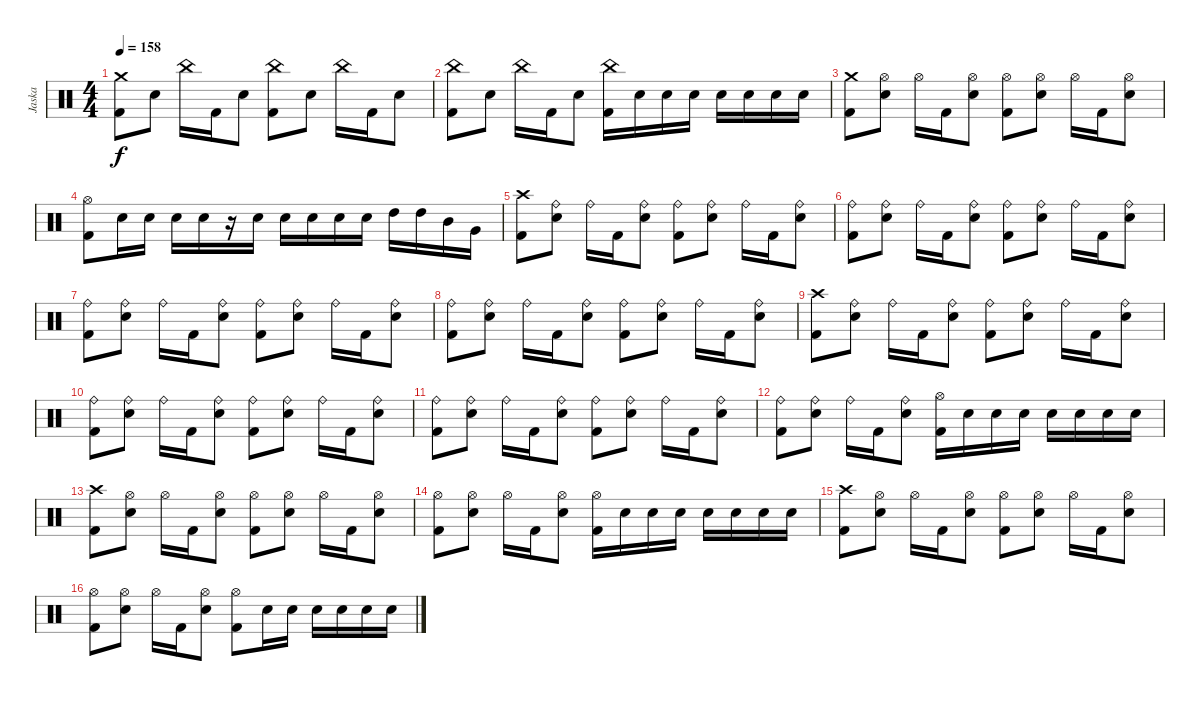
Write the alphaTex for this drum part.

\track ("Jaska" "Jaska") {instrument percussion}
\staff {score}
\articulation defaults
\ts (4 4)
\tempo 158
\clef neutral
\ks c
("Crash medium (hit)" "Kick (hit) 2").8{dy f} "Electric Snare (hit)".8 "China (hit)".16 "Kick (hit) 2".16 "Electric Snare (hit)".8 ("China (hit)" "Kick (hit) 2").8 "Electric Snare (hit)".8 "China (hit)".16 "Kick (hit) 2".16 "Electric Snare (hit)".8 |
("China (hit)" "Kick (hit) 2").8 "Electric Snare (hit)".8 "China (hit)".16 "Kick (hit) 2".16 "Electric Snare (hit)".8 ("China (hit)" "Kick (hit) 2").16 "Electric Snare (hit)".16 "Electric Snare (hit)".16 "Electric Snare (hit)".16 "Electric Snare (hit)".16 "Electric Snare (hit)".16 "Electric Snare (hit)".16 "Electric Snare (hit)".16 |
("Crash medium (hit)" "Kick (hit) 2").8 ("Hi-Hat (open)" "Electric Snare (hit)").8 "Hi-Hat (open)".16 "Kick (hit) 2".16 ("Hi-Hat (open)" "Electric Snare (hit)").8 ("Hi-Hat (open)" "Kick (hit) 2").8 ("Hi-Hat (open)" "Electric Snare (hit)").8 "Hi-Hat (open)".16 "Kick (hit) 2".16 ("Hi-Hat (open)" "Electric Snare (hit)").8 |
("Hi-Hat (open)" "Kick (hit) 2").8 "Electric Snare (hit)".16 "Electric Snare (hit)".16 "Electric Snare (hit)".16 "Electric Snare (hit)".16 r.16 "Electric Snare (hit)".16 "Electric Snare (hit)".16 "Electric Snare (hit)".16 "Electric Snare (hit)".16 "Electric Snare (hit)".16 "High Tom (hit)".16{balance 0} "High Tom (hit)".16{balance 7} "Mid Tom (hit)".16{balance 12} "Very Low Tom (hit)".16{balance 16} |
("Crash high (hit)" "Kick (hit) 2").8{balance 8} ("Ride (bell)" "Electric Snare (hit)").8 "Ride (bell)".16 "Kick (hit) 2".16 ("Ride (bell)" "Electric Snare (hit)").8 ("Ride (bell)" "Kick (hit) 2").8 ("Ride (bell)" "Electric Snare (hit)").8 "Ride (bell)".16 "Kick (hit) 2".16 ("Ride (bell)" "Electric Snare (hit)").8 |
("Ride (bell)" "Kick (hit) 2").8 ("Ride (bell)" "Electric Snare (hit)").8 "Ride (bell)".16 "Kick (hit) 2".16 ("Ride (bell)" "Electric Snare (hit)").8 ("Ride (bell)" "Kick (hit) 2").8 ("Ride (bell)" "Electric Snare (hit)").8 "Ride (bell)".16 "Kick (hit) 2".16 ("Ride (bell)" "Electric Snare (hit)").8 |
("Ride (bell)" "Kick (hit) 2").8 ("Ride (bell)" "Electric Snare (hit)").8 "Ride (bell)".16 "Kick (hit) 2".16 ("Ride (bell)" "Electric Snare (hit)").8 ("Ride (bell)" "Kick (hit) 2").8 ("Ride (bell)" "Electric Snare (hit)").8 "Ride (bell)".16 "Kick (hit) 2".16 ("Ride (bell)" "Electric Snare (hit)").8 |
("Ride (bell)" "Kick (hit) 2").8 ("Ride (bell)" "Electric Snare (hit)").8 "Ride (bell)".16 "Kick (hit) 2".16 ("Ride (bell)" "Electric Snare (hit)").8 ("Ride (bell)" "Kick (hit) 2").8 ("Ride (bell)" "Electric Snare (hit)").8 "Ride (bell)".16 "Kick (hit) 2".16 ("Ride (bell)" "Electric Snare (hit)").8 |
("Crash high (hit)" "Kick (hit) 2").8 ("Ride (bell)" "Electric Snare (hit)").8 "Ride (bell)".16 "Kick (hit) 2".16 ("Ride (bell)" "Electric Snare (hit)").8 ("Ride (bell)" "Kick (hit) 2").8 ("Ride (bell)" "Electric Snare (hit)").8 "Ride (bell)".16 "Kick (hit) 2".16 ("Ride (bell)" "Electric Snare (hit)").8 |
("Ride (bell)" "Kick (hit) 2").8 ("Ride (bell)" "Electric Snare (hit)").8 "Ride (bell)".16 "Kick (hit) 2".16 ("Ride (bell)" "Electric Snare (hit)").8 ("Ride (bell)" "Kick (hit) 2").8 ("Ride (bell)" "Electric Snare (hit)").8 "Ride (bell)".16 "Kick (hit) 2".16 ("Ride (bell)" "Electric Snare (hit)").8 |
("Ride (bell)" "Kick (hit) 2").8 ("Ride (bell)" "Electric Snare (hit)").8 "Ride (bell)".16 "Kick (hit) 2".16 ("Ride (bell)" "Electric Snare (hit)").8 ("Ride (bell)" "Kick (hit) 2").8 ("Ride (bell)" "Electric Snare (hit)").8 "Ride (bell)".16 "Kick (hit) 2".16 ("Ride (bell)" "Electric Snare (hit)").8 |
("Ride (bell)" "Kick (hit) 2").8 ("Ride (bell)" "Electric Snare (hit)").8 "Ride (bell)".16 "Kick (hit) 2".16 ("Ride (bell)" "Electric Snare (hit)").8 ("Hi-Hat (open)" "Kick (hit) 2").16 "Electric Snare (hit)".16 "Electric Snare (hit)".16 "Electric Snare (hit)".16 "Electric Snare (hit)".16 "Electric Snare (hit)".16 "Electric Snare (hit)".16 "Electric Snare (hit)".16 |
("Crash high (hit)" "Kick (hit) 2").8 ("Hi-Hat (open)" "Electric Snare (hit)").8 "Hi-Hat (open)".16 "Kick (hit) 2".16 ("Hi-Hat (open)" "Electric Snare (hit)").8 ("Hi-Hat (open)" "Kick (hit) 2").8 ("Hi-Hat (open)" "Electric Snare (hit)").8 "Hi-Hat (open)".16 "Kick (hit) 2".16 ("Hi-Hat (open)" "Electric Snare (hit)").8 |
("Hi-Hat (open)" "Kick (hit) 2").8 ("Hi-Hat (open)" "Electric Snare (hit)").8 "Hi-Hat (open)".16 "Kick (hit) 2".16 ("Hi-Hat (open)" "Electric Snare (hit)").8 ("Hi-Hat (open)" "Kick (hit) 2").16 "Electric Snare (hit)".16 "Electric Snare (hit)".16 "Electric Snare (hit)".16 "Electric Snare (hit)".16 "Electric Snare (hit)".16 "Electric Snare (hit)".16 "Electric Snare (hit)".16 |
("Crash high (hit)" "Kick (hit) 2").8 ("Hi-Hat (open)" "Electric Snare (hit)").8 "Hi-Hat (open)".16 "Kick (hit) 2".16 ("Hi-Hat (open)" "Electric Snare (hit)").8 ("Hi-Hat (open)" "Kick (hit) 2").8 ("Hi-Hat (open)" "Electric Snare (hit)").8 "Hi-Hat (open)".16 "Kick (hit) 2".16 ("Hi-Hat (open)" "Electric Snare (hit)").8 |
("Hi-Hat (open)" "Kick (hit) 2").8 ("Hi-Hat (open)" "Electric Snare (hit)").8 "Hi-Hat (open)".16 "Kick (hit) 2".16 ("Hi-Hat (open)" "Electric Snare (hit)").8 ("Hi-Hat (open)" "Kick (hit) 2").8 "Electric Snare (hit)".16 "Electric Snare (hit)".16 "Electric Snare (hit)".16 "Electric Snare (hit)".16 "Electric Snare (hit)".16 "Electric Snare (hit)".16
